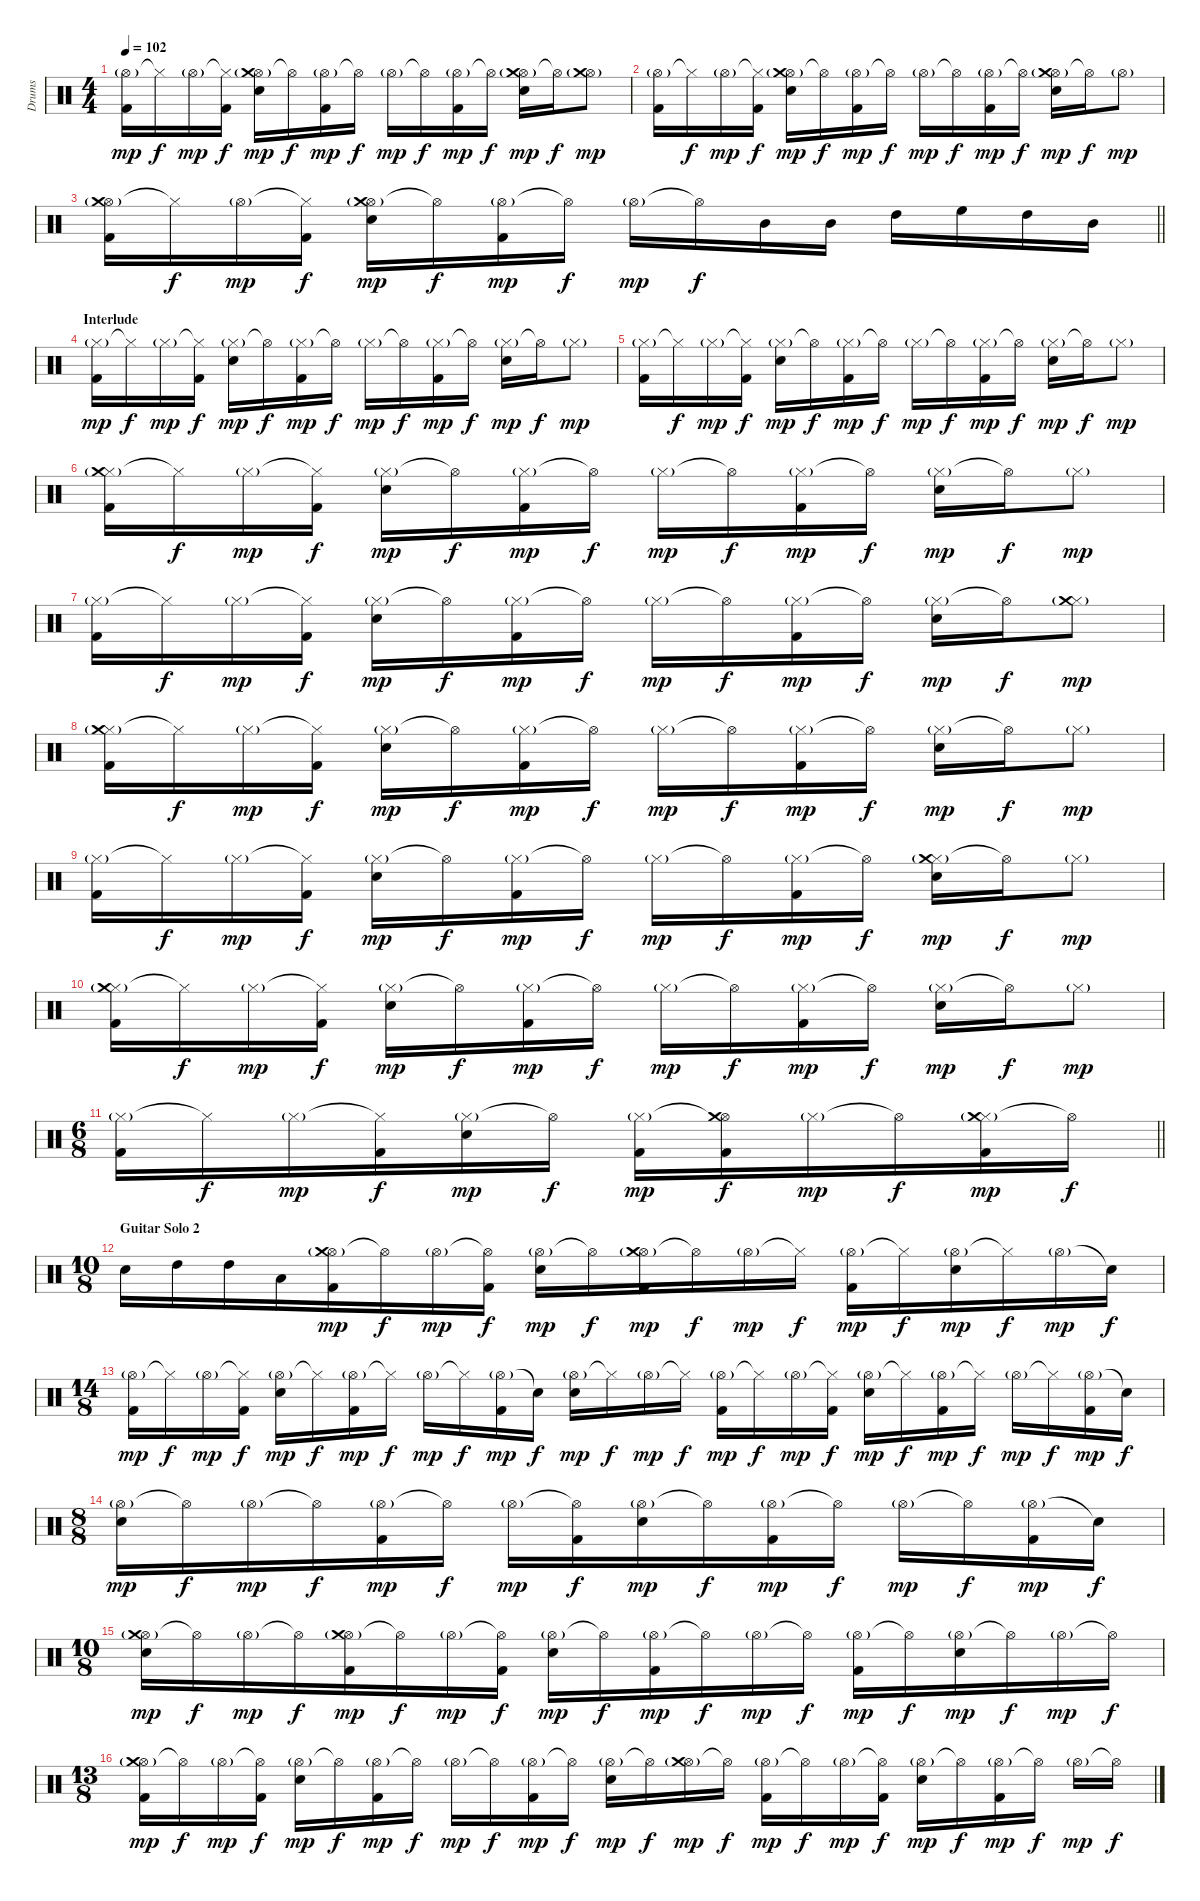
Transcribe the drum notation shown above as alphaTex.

\track ("Drums" "Drums") {instrument percussion}
\staff {score}
\articulation defaults
\ts (4 4)
\tempo 102
\clef neutral
\ks c
("Hi-Hat (open)"{g} "Kick (hit) 2").16{dy mp} "Hi-Hat (closed)"{t}.16{dy f} "Hi-Hat (open)"{g}.16{dy mp} ("Hi-Hat (closed)"{t} "Kick (hit) 2").16{dy f} ("Hi-Hat (open)"{g} "Crash medium (hit)"{g} "Electric Snare (hit)").16{dy mp} "Hi-Hat (open)"{t}.16{dy f} ("Hi-Hat (open)"{g} "Kick (hit) 2").16{dy mp} "Hi-Hat (open)"{t}.16{dy f} "Hi-Hat (open)"{g}.16{dy mp} "Hi-Hat (open)"{t}.16{dy f} ("Hi-Hat (open)"{g} "Kick (hit) 2").16{dy mp} "Hi-Hat (open)"{t}.16{dy f} ("Hi-Hat (open)"{g} "Crash medium (hit)" "Electric Snare (hit)").16{dy mp} "Hi-Hat (open)"{t}.16{dy f} ("Hi-Hat (open)"{g} "Crash medium (hit)").8{dy mp} |
("Hi-Hat (open)"{g} "Kick (hit) 2").16 "Hi-Hat (closed)"{t}.16{dy f} "Hi-Hat (open)"{g}.16{dy mp} ("Hi-Hat (closed)"{t} "Kick (hit) 2").16{dy f} ("Hi-Hat (open)"{g} "Crash medium (hit)"{g} "Electric Snare (hit)").16{dy mp} "Hi-Hat (open)"{t}.16{dy f} ("Hi-Hat (open)"{g} "Kick (hit) 2").16{dy mp} "Hi-Hat (open)"{t}.16{dy f} "Hi-Hat (open)"{g}.16{dy mp} "Hi-Hat (open)"{t}.16{dy f} ("Hi-Hat (open)"{g} "Kick (hit) 2").16{dy mp} "Hi-Hat (open)"{t}.16{dy f} ("Hi-Hat (open)"{g} "Crash medium (hit)"{g} "Electric Snare (hit)").16{dy mp} "Hi-Hat (open)"{t}.16{dy f} "Hi-Hat (open)"{g}.8{dy mp} |
\barLineRight lightlight
("Hi-Hat (open)"{g} "Crash medium (hit)" "Kick (hit) 2").16 "Hi-Hat (closed)"{t}.16{dy f} "Hi-Hat (open)"{g}.16{dy mp} ("Hi-Hat (closed)"{t} "Kick (hit) 2").16{dy f} ("Hi-Hat (open)"{g} "Crash medium (hit)"{g} "Electric Snare (hit)").16{dy mp} "Hi-Hat (open)"{t}.16{dy f} ("Hi-Hat (open)"{g} "Kick (hit) 2").16{dy mp} "Hi-Hat (open)"{t}.16{dy f} "Hi-Hat (open)"{g}.16{dy mp} "Hi-Hat (open)"{t}.16{dy f} "Mid Tom (hit)".16 "Mid Tom (hit)".16 "High Tom (hit)".16 "High Floor Tom (hit)".16 "High Tom (hit)".16 "Mid Tom (hit)".16 |
\section ("" "Interlude")
("Hi-Hat (closed)"{g} "Kick (hit) 2").16{dy mp} "Hi-Hat (closed)"{t}.16{dy f} "Hi-Hat (closed)"{g}.16{dy mp} ("Hi-Hat (closed)"{t} "Kick (hit) 2").16{dy f} ("Hi-Hat (closed)"{g} "Electric Snare (hit)").16{dy mp} "Hi-Hat (open)"{t}.16{dy f} ("Hi-Hat (closed)"{g} "Kick (hit) 2").16{dy mp} "Hi-Hat (open)"{t}.16{dy f} "Hi-Hat (closed)"{g}.16{dy mp} "Hi-Hat (open)"{t}.16{dy f} ("Hi-Hat (closed)"{g} "Kick (hit) 2").16{dy mp} "Hi-Hat (open)"{t}.16{dy f} ("Hi-Hat (closed)"{g} "Electric Snare (hit)").16{dy mp} "Hi-Hat (open)"{t}.16{dy f} "Hi-Hat (closed)"{g}.8{dy mp} |
("Hi-Hat (closed)"{g} "Kick (hit) 2").16 "Hi-Hat (closed)"{t}.16{dy f} "Hi-Hat (closed)"{g}.16{dy mp} ("Hi-Hat (closed)"{t} "Kick (hit) 2").16{dy f} ("Hi-Hat (closed)"{g} "Electric Snare (hit)").16{dy mp} "Hi-Hat (open)"{t}.16{dy f} ("Hi-Hat (closed)"{g} "Kick (hit) 2").16{dy mp} "Hi-Hat (open)"{t}.16{dy f} "Hi-Hat (closed)"{g}.16{dy mp} "Hi-Hat (open)"{t}.16{dy f} ("Hi-Hat (closed)"{g} "Kick (hit) 2").16{dy mp} "Hi-Hat (open)"{t}.16{dy f} ("Hi-Hat (closed)"{g} "Electric Snare (hit)").16{dy mp} "Hi-Hat (open)"{t}.16{dy f} "Hi-Hat (closed)"{g}.8{dy mp} |
("Hi-Hat (closed)"{g} "Crash medium (hit)" "Kick (hit) 2").16 "Hi-Hat (closed)"{t}.16{dy f} "Hi-Hat (closed)"{g}.16{dy mp} ("Hi-Hat (closed)"{t} "Kick (hit) 2").16{dy f} ("Hi-Hat (closed)"{g} "Electric Snare (hit)").16{dy mp} "Hi-Hat (open)"{t}.16{dy f} ("Hi-Hat (closed)"{g} "Kick (hit) 2").16{dy mp} "Hi-Hat (open)"{t}.16{dy f} "Hi-Hat (closed)"{g}.16{dy mp} "Hi-Hat (open)"{t}.16{dy f} ("Hi-Hat (closed)"{g} "Kick (hit) 2").16{dy mp} "Hi-Hat (open)"{t}.16{dy f} ("Hi-Hat (closed)"{g} "Electric Snare (hit)").16{dy mp} "Hi-Hat (open)"{t}.16{dy f} "Hi-Hat (closed)"{g}.8{dy mp} |
("Hi-Hat (closed)"{g} "Kick (hit) 2").16 "Hi-Hat (closed)"{t}.16{dy f} "Hi-Hat (closed)"{g}.16{dy mp} ("Hi-Hat (closed)"{t} "Kick (hit) 2").16{dy f} ("Hi-Hat (closed)"{g} "Electric Snare (hit)").16{dy mp} "Hi-Hat (open)"{t}.16{dy f} ("Hi-Hat (closed)"{g} "Kick (hit) 2").16{dy mp} "Hi-Hat (open)"{t}.16{dy f} "Hi-Hat (closed)"{g}.16{dy mp} "Hi-Hat (open)"{t}.16{dy f} ("Hi-Hat (closed)"{g} "Kick (hit) 2").16{dy mp} "Hi-Hat (open)"{t}.16{dy f} ("Hi-Hat (closed)"{g} "Electric Snare (hit)").16{dy mp} "Hi-Hat (open)"{t}.16{dy f} ("Hi-Hat (closed)"{g} "Crash medium (hit)").8{dy mp} |
("Hi-Hat (closed)"{g} "Crash medium (hit)" "Kick (hit) 2").16 "Hi-Hat (closed)"{t}.16{dy f} "Hi-Hat (closed)"{g}.16{dy mp} ("Hi-Hat (closed)"{t} "Kick (hit) 2").16{dy f} ("Hi-Hat (closed)"{g} "Electric Snare (hit)").16{dy mp} "Hi-Hat (open)"{t}.16{dy f} ("Hi-Hat (closed)"{g} "Kick (hit) 2").16{dy mp} "Hi-Hat (open)"{t}.16{dy f} "Hi-Hat (closed)"{g}.16{dy mp} "Hi-Hat (open)"{t}.16{dy f} ("Hi-Hat (closed)"{g} "Kick (hit) 2").16{dy mp} "Hi-Hat (open)"{t}.16{dy f} ("Hi-Hat (closed)"{g} "Electric Snare (hit)").16{dy mp} "Hi-Hat (open)"{t}.16{dy f} "Hi-Hat (closed)"{g}.8{dy mp} |
("Hi-Hat (closed)"{g} "Kick (hit) 2").16 "Hi-Hat (closed)"{t}.16{dy f} "Hi-Hat (closed)"{g}.16{dy mp} ("Hi-Hat (closed)"{t} "Kick (hit) 2").16{dy f} ("Hi-Hat (closed)"{g} "Electric Snare (hit)").16{dy mp} "Hi-Hat (open)"{t}.16{dy f} ("Hi-Hat (closed)"{g} "Kick (hit) 2").16{dy mp} "Hi-Hat (open)"{t}.16{dy f} "Hi-Hat (closed)"{g}.16{dy mp} "Hi-Hat (open)"{t}.16{dy f} ("Hi-Hat (closed)"{g} "Kick (hit) 2").16{dy mp} "Hi-Hat (open)"{t}.16{dy f} ("Hi-Hat (closed)"{g} "Crash medium (hit)" "Electric Snare (hit)").16{dy mp} "Hi-Hat (open)"{t}.16{dy f} "Hi-Hat (closed)"{g}.8{dy mp} |
("Hi-Hat (closed)"{g} "Crash medium (hit)" "Kick (hit) 2").16 "Hi-Hat (closed)"{t}.16{dy f} "Hi-Hat (closed)"{g}.16{dy mp} ("Hi-Hat (closed)"{t} "Kick (hit) 2").16{dy f} ("Hi-Hat (closed)"{g} "Electric Snare (hit)").16{dy mp} "Hi-Hat (open)"{t}.16{dy f} ("Hi-Hat (closed)"{g} "Kick (hit) 2").16{dy mp} "Hi-Hat (open)"{t}.16{dy f} "Hi-Hat (closed)"{g}.16{dy mp} "Hi-Hat (open)"{t}.16{dy f} ("Hi-Hat (closed)"{g} "Kick (hit) 2").16{dy mp} "Hi-Hat (open)"{t}.16{dy f} ("Hi-Hat (closed)"{g} "Electric Snare (hit)").16{dy mp} "Hi-Hat (open)"{t}.16{dy f} "Hi-Hat (closed)"{g}.8{dy mp} |
\ts (6 8)
\barLineRight lightlight
("Hi-Hat (closed)"{g} "Kick (hit) 2").16 "Hi-Hat (closed)"{t}.16{dy f} "Hi-Hat (closed)"{g}.16{dy mp} ("Hi-Hat (closed)"{t} "Kick (hit) 2").16{dy f} ("Hi-Hat (closed)"{g} "Electric Snare (hit)").16{dy mp} "Hi-Hat (open)"{t}.16{dy f} ("Hi-Hat (closed)"{g} "Kick (hit) 2").16{dy mp} ("Hi-Hat (open)"{t} "Crash medium (hit)" "Kick (hit) 2").16{dy f} "Hi-Hat (closed)"{g}.16{dy mp} "Hi-Hat (open)"{t}.16{dy f} ("Hi-Hat (closed)"{g} "Crash medium (hit)" "Kick (hit) 2").16{dy mp} "Hi-Hat (open)"{t}.16{dy f} |
\ts (10 8)
\section ("" "Guitar Solo 2")
"Electric Snare (hit)".16 "High Tom (hit)".16 "High Tom (hit)".16 "Low Tom (hit)".16 ("Hi-Hat (open)"{g} "Crash medium (hit)" "Kick (hit) 2").16{dy mp} "Hi-Hat (open)"{t}.16{dy f} "Hi-Hat (open)"{g}.16{dy mp} ("Hi-Hat (open)"{t} "Kick (hit) 2").16{dy f} ("Hi-Hat (open)"{g} "Electric Snare (hit)").16{dy mp} "Hi-Hat (open)"{t}.16{dy f} ("Hi-Hat (open)"{g} "Crash medium (hit)" "Kick (hit) 2").16{dy mp} "Hi-Hat (open)"{t}.16{dy f} "Hi-Hat (open)"{g}.16{dy mp} "Hi-Hat (closed)"{t}.16{dy f} ("Hi-Hat (open)"{g} "Kick (hit) 2").16{dy mp} "Hi-Hat (closed)"{t}.16{dy f} ("Hi-Hat (open)"{g} "Electric Snare (hit)").16{dy mp} "Hi-Hat (closed)"{t}.16{dy f} "Hi-Hat (open)"{g}.16{dy mp} "Snare (hit)"{t}.16{dy f} |
\ts (14 8)
("Hi-Hat (open)"{g} "Kick (hit) 2").16{dy mp} "Hi-Hat (closed)"{t}.16{dy f} "Hi-Hat (open)"{g}.16{dy mp} ("Hi-Hat (closed)"{t} "Kick (hit) 2").16{dy f} ("Hi-Hat (open)"{g} "Electric Snare (hit)").16{dy mp} "Hi-Hat (closed)"{t}.16{dy f} ("Hi-Hat (open)"{g} "Kick (hit) 2").16{dy mp} "Hi-Hat (closed)"{t}.16{dy f} "Hi-Hat (open)"{g}.16{dy mp} "Hi-Hat (closed)"{t}.16{dy f} ("Hi-Hat (open)"{g} "Kick (hit) 2").16{dy mp} "Snare (hit)"{t}.16{dy f} ("Hi-Hat (open)"{g} "Electric Snare (hit)").16{dy mp} "Hi-Hat (closed)"{t}.16{dy f} "Hi-Hat (open)"{g}.16{dy mp} "Hi-Hat (closed)"{t}.16{dy f} ("Hi-Hat (open)"{g} "Kick (hit) 2").16{dy mp} "Hi-Hat (closed)"{t}.16{dy f} "Hi-Hat (open)"{g}.16{dy mp} ("Hi-Hat (closed)"{t} "Kick (hit) 2").16{dy f} ("Hi-Hat (open)"{g} "Electric Snare (hit)").16{dy mp} "Hi-Hat (closed)"{t}.16{dy f} ("Hi-Hat (open)"{g} "Kick (hit) 2").16{dy mp} "Hi-Hat (closed)"{t}.16{dy f} "Hi-Hat (open)"{g}.16{dy mp} "Hi-Hat (closed)"{t}.16{dy f} ("Hi-Hat (open)"{g} "Kick (hit) 2").16{dy mp} "Snare (hit)"{t}.16{dy f} |
\ts (8 8)
("Hi-Hat (open)"{g} "Electric Snare (hit)").16{dy mp} "Hi-Hat (open)"{t}.16{dy f} "Hi-Hat (open)"{g}.16{dy mp} "Hi-Hat (open)"{t}.16{dy f} ("Hi-Hat (open)"{g} "Kick (hit) 2").16{dy mp} "Hi-Hat (open)"{t}.16{dy f} "Hi-Hat (open)"{g}.16{dy mp} ("Hi-Hat (open)"{t} "Kick (hit) 2").16{dy f} ("Hi-Hat (open)"{g} "Electric Snare (hit)").16{dy mp} "Hi-Hat (open)"{t}.16{dy f} ("Hi-Hat (open)"{g} "Kick (hit) 2").16{dy mp} "Hi-Hat (open)"{t}.16{dy f} "Hi-Hat (open)"{g}.16{dy mp} "Hi-Hat (open)"{t}.16{dy f} ("Hi-Hat (open)"{g} "Kick (hit) 2").16{dy mp} "Snare (hit)"{t}.16{dy f} |
\ts (10 8)
("Hi-Hat (open)"{g} "Crash medium (hit)" "Electric Snare (hit)").16{dy mp} "Hi-Hat (open)"{t}.16{dy f} "Hi-Hat (open)"{g}.16{dy mp} "Hi-Hat (open)"{t}.16{dy f} ("Hi-Hat (open)"{g} "Crash medium (hit)" "Kick (hit) 2").16{dy mp} "Hi-Hat (open)"{t}.16{dy f} "Hi-Hat (open)"{g}.16{dy mp} ("Hi-Hat (open)"{t} "Kick (hit) 2").16{dy f} ("Hi-Hat (open)"{g} "Electric Snare (hit)").16{dy mp} "Hi-Hat (open)"{t}.16{dy f} ("Hi-Hat (open)"{g} "Kick (hit) 2").16{dy mp} "Hi-Hat (open)"{t}.16{dy f} "Hi-Hat (open)"{g}.16{dy mp} "Hi-Hat (open)"{t}.16{dy f} ("Hi-Hat (open)"{g} "Kick (hit) 2").16{dy mp} "Hi-Hat (open)"{t}.16{dy f} ("Hi-Hat (open)"{g} "Electric Snare (hit)").16{dy mp} "Hi-Hat (open)"{t}.16{dy f} "Hi-Hat (open)"{g}.16{dy mp} "Hi-Hat (open)"{t}.16{dy f} |
\ts (13 8)
("Hi-Hat (open)"{g} "Crash medium (hit)" "Kick (hit) 2").16{dy mp} "Hi-Hat (open)"{t}.16{dy f} "Hi-Hat (open)"{g}.16{dy mp} ("Hi-Hat (open)"{t} "Kick (hit) 2").16{dy f} ("Hi-Hat (open)"{g} "Electric Snare (hit)").16{dy mp} "Hi-Hat (open)"{t}.16{dy f} ("Hi-Hat (open)"{g} "Kick (hit) 2").16{dy mp} "Hi-Hat (open)"{t}.16{dy f} "Hi-Hat (open)"{g}.16{dy mp} "Hi-Hat (open)"{t}.16{dy f} ("Hi-Hat (open)"{g} "Kick (hit) 2").16{dy mp} "Hi-Hat (open)"{t}.16{dy f} ("Hi-Hat (open)"{g} "Electric Snare (hit)").16{dy mp} "Hi-Hat (open)"{t}.16{dy f} ("Hi-Hat (open)"{g} "Crash medium (hit)").16{dy mp} "Hi-Hat (open)"{t}.16{dy f} ("Hi-Hat (open)"{g} "Kick (hit) 2").16{dy mp} "Hi-Hat (open)"{t}.16{dy f} "Hi-Hat (open)"{g}.16{dy mp} ("Hi-Hat (open)"{t} "Kick (hit) 2").16{dy f} ("Hi-Hat (open)"{g} "Electric Snare (hit)").16{dy mp} "Hi-Hat (open)"{t}.16{dy f} ("Hi-Hat (open)"{g} "Kick (hit) 2").16{dy mp} "Hi-Hat (open)"{t}.16{dy f} "Hi-Hat (open)"{g}.16{dy mp} "Hi-Hat (open)"{t}.16{dy f}
